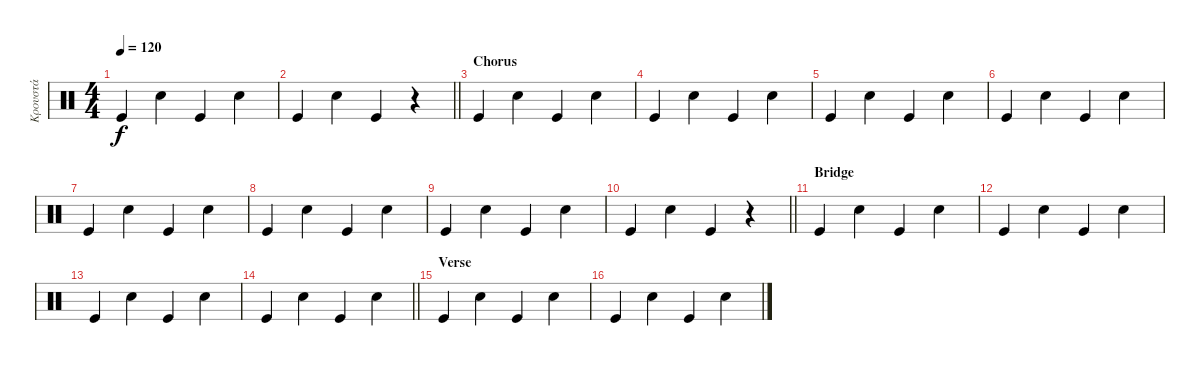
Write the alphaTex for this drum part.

\track ("Κρουστά" "Κρουστά") {instrument percussion}
\staff {score}
\articulation defaults
\ts (4 4)
\tempo 120
\clef neutral
\ks c "Kick (hit)".4{dy f} "Hand Clap (hit)".4 "Kick (hit)".4 "Hand Clap (hit)".4
|
\barLineRight lightlight "Kick (hit)".4 "Hand Clap (hit)".4 "Kick (hit)".4
r.4 |
\section ("" "Chorus")
"Kick (hit)".4 "Hand Clap (hit)".4 "Kick (hit)".4 "Hand Clap (hit)".4 |
"Kick (hit)".4 "Hand Clap (hit)".4 "Kick (hit)".4 "Hand Clap (hit)".4 |
"Kick (hit)".4 "Hand Clap (hit)".4 "Kick (hit)".4 "Hand Clap (hit)".4 |
"Kick (hit)".4 "Hand Clap (hit)".4 "Kick (hit)".4 "Hand Clap (hit)".4 |
"Kick (hit)".4 "Hand Clap (hit)".4 "Kick (hit)".4 "Hand Clap (hit)".4 |
"Kick (hit)".4 "Hand Clap (hit)".4 "Kick (hit)".4 "Hand Clap (hit)".4 |
"Kick (hit)".4 "Hand Clap (hit)".4 "Kick (hit)".4 "Hand Clap (hit)".4 |
\barLineRight lightlight "Kick (hit)".4 "Hand Clap (hit)".4 "Kick (hit)".4
r.4 |
\section ("" "Bridge")
"Kick (hit)".4 "Hand Clap (hit)".4 "Kick (hit)".4 "Hand Clap (hit)".4 |
"Kick (hit)".4 "Hand Clap (hit)".4 "Kick (hit)".4 "Hand Clap (hit)".4 |
"Kick (hit)".4 "Hand Clap (hit)".4 "Kick (hit)".4 "Hand Clap (hit)".4 |
\barLineRight lightlight "Kick (hit)".4 "Hand Clap (hit)".4 "Kick (hit)".4 "Hand Clap (hit)".4
|
\section ("" "Verse")
"Kick (hit)".4 "Hand Clap (hit)".4 "Kick (hit)".4 "Hand Clap (hit)".4 |
"Kick (hit)".4 "Hand Clap (hit)".4 "Kick (hit)".4 "Hand Clap (hit)".4
